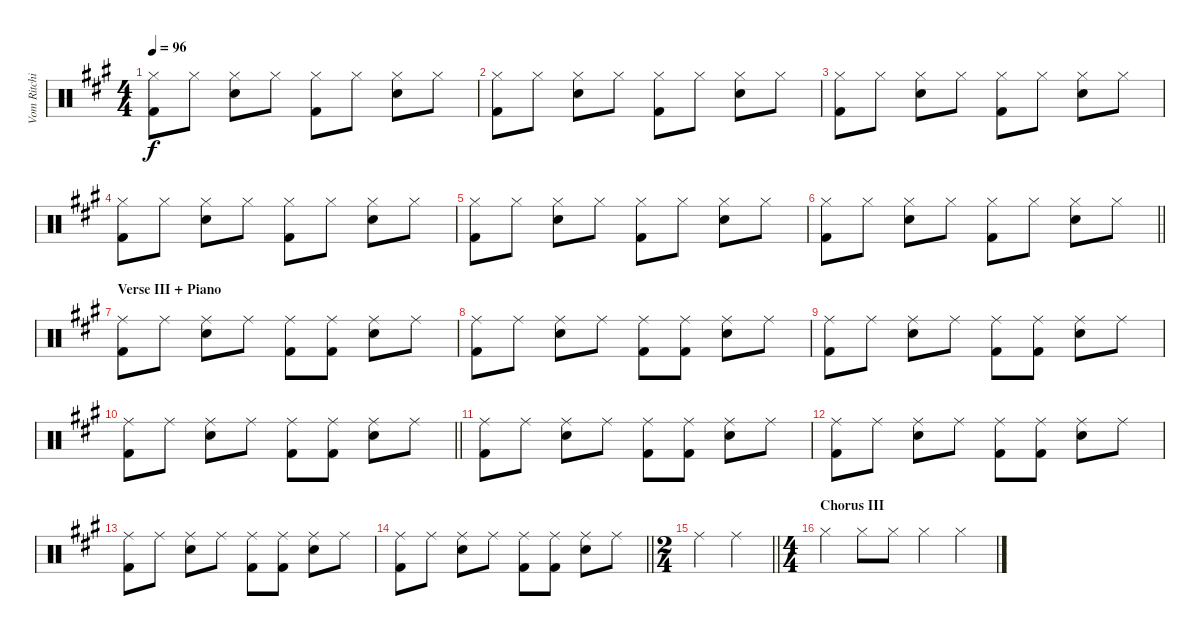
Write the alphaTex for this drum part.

\track ("Vom Ritchie" "Vom Ritchi") {instrument percussion}
\staff {score}
\articulation defaults
\ts (4 4)
\tempo 96
\clef neutral
\ks a
("Hi-Hat (closed)" "Kick (hit) 2").8{dy f} "Hi-Hat (closed)".8 ("Hi-Hat (closed)" "Snare (hit) 2").8 "Hi-Hat (closed)".8 ("Hi-Hat (closed)" "Kick (hit) 2").8 "Hi-Hat (closed)".8 ("Hi-Hat (closed)" "Snare (hit) 2").8 "Hi-Hat (closed)".8 |
("Hi-Hat (closed)" "Kick (hit) 2").8 "Hi-Hat (closed)".8 ("Hi-Hat (closed)" "Snare (hit) 2").8 "Hi-Hat (closed)".8 ("Hi-Hat (closed)" "Kick (hit) 2").8 "Hi-Hat (closed)".8 ("Hi-Hat (closed)" "Snare (hit) 2").8 "Hi-Hat (closed)".8 |
("Hi-Hat (closed)" "Kick (hit) 2").8 "Hi-Hat (closed)".8 ("Hi-Hat (closed)" "Snare (hit) 2").8 "Hi-Hat (closed)".8 ("Hi-Hat (closed)" "Kick (hit) 2").8 "Hi-Hat (closed)".8 ("Hi-Hat (closed)" "Snare (hit) 2").8 "Hi-Hat (closed)".8 |
("Hi-Hat (closed)" "Kick (hit) 2").8 "Hi-Hat (closed)".8 ("Hi-Hat (closed)" "Snare (hit) 2").8 "Hi-Hat (closed)".8 ("Hi-Hat (closed)" "Kick (hit) 2").8 "Hi-Hat (closed)".8 ("Hi-Hat (closed)" "Snare (hit) 2").8 "Hi-Hat (closed)".8 |
("Hi-Hat (closed)" "Kick (hit) 2").8 "Hi-Hat (closed)".8 ("Hi-Hat (closed)" "Snare (hit) 2").8 "Hi-Hat (closed)".8 ("Hi-Hat (closed)" "Kick (hit) 2").8 "Hi-Hat (closed)".8 ("Hi-Hat (closed)" "Snare (hit) 2").8 "Hi-Hat (closed)".8 |
\barLineRight lightlight
("Hi-Hat (closed)" "Kick (hit) 2").8 "Hi-Hat (closed)".8 ("Hi-Hat (closed)" "Snare (hit) 2").8 "Hi-Hat (closed)".8 ("Hi-Hat (closed)" "Kick (hit) 2").8 "Hi-Hat (closed)".8 ("Hi-Hat (closed)" "Snare (hit) 2").8 "Hi-Hat (closed)".8 |
\section ("" "Verse III + Piano")
("Ride (middle)" "Kick (hit) 2").8 "Ride (middle)".8 ("Ride (middle)" "Snare (hit) 2").8 "Ride (middle)".8 ("Ride (middle)" "Kick (hit) 2").8 ("Ride (middle)" "Kick (hit) 2").8 ("Ride (middle)" "Snare (hit) 2").8 "Ride (middle)".8 |
("Ride (middle)" "Kick (hit) 2").8 "Ride (middle)".8 ("Ride (middle)" "Snare (hit) 2").8 "Ride (middle)".8 ("Ride (middle)" "Kick (hit) 2").8 ("Ride (middle)" "Kick (hit) 2").8 ("Ride (middle)" "Snare (hit) 2").8 "Ride (middle)".8 |
("Ride (middle)" "Kick (hit) 2").8 "Ride (middle)".8 ("Ride (middle)" "Snare (hit) 2").8 "Ride (middle)".8 ("Ride (middle)" "Kick (hit) 2").8 ("Ride (middle)" "Kick (hit) 2").8 ("Ride (middle)" "Snare (hit) 2").8 "Ride (middle)".8 |
\barLineRight lightlight
("Ride (middle)" "Kick (hit) 2").8 "Ride (middle)".8 ("Ride (middle)" "Snare (hit) 2").8 "Ride (middle)".8 ("Ride (middle)" "Kick (hit) 2").8 ("Ride (middle)" "Kick (hit) 2").8 ("Ride (middle)" "Snare (hit) 2").8 "Ride (middle)".8 |
("Ride (middle)" "Kick (hit) 2").8 "Ride (middle)".8 ("Ride (middle)" "Snare (hit) 2").8 "Ride (middle)".8 ("Ride (middle)" "Kick (hit) 2").8 ("Ride (middle)" "Kick (hit) 2").8 ("Ride (middle)" "Snare (hit) 2").8 "Ride (middle)".8 |
("Ride (middle)" "Kick (hit) 2").8 "Ride (middle)".8 ("Ride (middle)" "Snare (hit) 2").8 "Ride (middle)".8 ("Ride (middle)" "Kick (hit) 2").8 ("Ride (middle)" "Kick (hit) 2").8 ("Ride (middle)" "Snare (hit) 2").8 "Ride (middle)".8 |
("Ride (middle)" "Kick (hit) 2").8 "Ride (middle)".8 ("Ride (middle)" "Snare (hit) 2").8 "Ride (middle)".8 ("Ride (middle)" "Kick (hit) 2").8 ("Ride (middle)" "Kick (hit) 2").8 ("Ride (middle)" "Snare (hit) 2").8 "Ride (middle)".8 |
\barLineRight lightlight
("Ride (middle)" "Kick (hit) 2").8 "Ride (middle)".8 ("Ride (middle)" "Snare (hit) 2").8 "Ride (middle)".8 ("Ride (middle)" "Kick (hit) 2").8 ("Ride (middle)" "Kick (hit) 2").8 ("Ride (middle)" "Snare (hit) 2").8 "Ride (middle)".8 |
\ts (2 4)
\barLineRight lightlight "Ride (middle)".4 "Ride (middle)".4
|
\ts (4 4)
\section ("" "Chorus III")
"Hi-Hat (closed)".4 "Hi-Hat (closed)".8 "Hi-Hat (closed)".8 "Hi-Hat (closed)".4 "Hi-Hat (closed)".4
